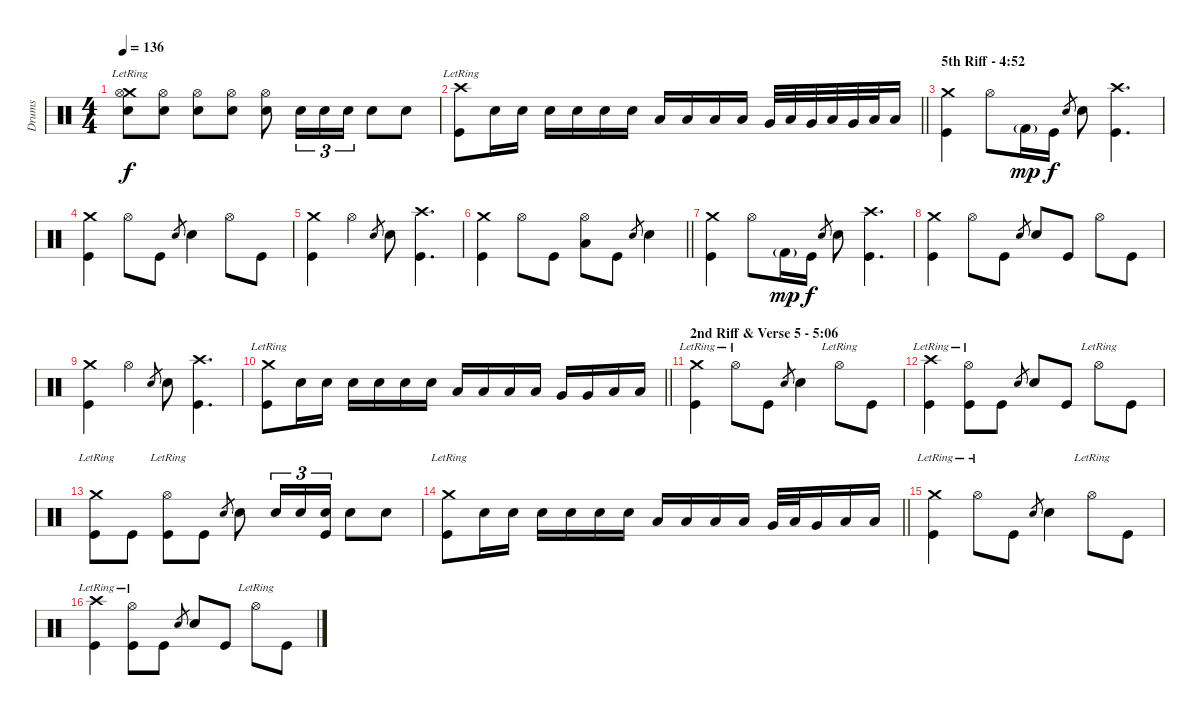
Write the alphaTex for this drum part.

\track ("Drums" "Drums") {instrument percussion}
\staff {score}
\articulation defaults
\ts (4 4)
\tempo 136
\clef neutral
\ks c
("Crash medium (hit)"{lr} "Hi-Hat (open)" "Snare (hit) 2").8{dy f} ("Hi-Hat (open)" "Snare (hit) 2").8 ("Hi-Hat (open)" "Snare (hit) 2").8 ("Hi-Hat (open)" "Snare (hit) 2").8 ("Hi-Hat (open)" "Snare (hit) 2").8 "Snare (hit) 2".16{tu (3 2)} "Snare (hit) 2".16{tu (3 2)} "Snare (hit) 2".16{tu (3 2)} "Snare (hit) 2".8 "Snare (hit) 2".8 |
\barLineRight lightlight
("Crash high (hit)"{lr} "Kick (hit)").8 "Snare (hit) 2".16 "Snare (hit) 2".16 "Snare (hit) 2".16 "Snare (hit) 2".16 "Snare (hit) 2".16 "Snare (hit) 2".16 "Low Tom (hit)".16 "Low Tom (hit)".16 "Low Tom (hit)".16 "Low Tom (hit)".16 "Very Low Tom (hit)".32 "Low Tom (hit)".32 "Very Low Tom (hit)".32 "Low Floor Tom (hit)".32 "Very Low Tom (hit)".32 "Low Floor Tom (hit)".32 "Low Floor Tom (hit)".16 |
\section ("" "5th Riff - 4:52")
("Crash medium (hit)" "Kick (hit)").4 "Hi-Hat (open)".8 "Kick (hit) 2"{g}.16{dy mp} "Kick (hit)".16{dy f} "Snare (hit) 2".8{gr} "Snare (hit) 2".8 ("Crash high (hit)" "Kick (hit)").4{d} |
("Crash medium (hit)" "Kick (hit)").4 "Hi-Hat (open)".8 "Kick (hit)".8 "Snare (hit) 2".8{gr} "Snare (hit) 2".4 "Hi-Hat (open)".8 "Kick (hit)".8 |
("Crash medium (hit)" "Kick (hit)").4 "Hi-Hat (open)".4 "Snare (hit) 2".8{gr} "Snare (hit) 2".8 ("Crash high (hit)" "Kick (hit)").4{d} |
\barLineRight lightlight
("Crash medium (hit)" "Kick (hit)").4 "Hi-Hat (open)".8 "Kick (hit)".8 ("Hi-Hat (open)" "Low Tom (hit)").8 "Kick (hit)".8 "Snare (hit) 2".8{gr} "Snare (hit) 2".4 |
("Crash medium (hit)" "Kick (hit)").4 "Hi-Hat (open)".8 "Kick (hit) 2"{g}.16{dy mp} "Kick (hit)".16{dy f} "Snare (hit) 2".8{gr} "Snare (hit) 2".8 ("Crash high (hit)" "Kick (hit)").4{d} |
("Crash medium (hit)" "Kick (hit)").4 "Hi-Hat (open)".8 "Kick (hit)".8 "Snare (hit) 2".8{gr} "Snare (hit) 2".8 "Kick (hit)".8 "Hi-Hat (open)".8 "Kick (hit)".8 |
("Crash medium (hit)" "Kick (hit)").4 "Hi-Hat (open)".4 "Snare (hit) 2".8{gr} "Snare (hit) 2".8 ("Crash high (hit)" "Kick (hit)").4{d} |
\barLineRight lightlight
("Crash medium (hit)"{lr} "Kick (hit)").8 "Snare (hit) 2".16 "Snare (hit) 2".16 "Snare (hit) 2".16 "Snare (hit) 2".16 "Snare (hit) 2".16 "Snare (hit) 2".16 "Low Tom (hit)".16 "Low Tom (hit)".16 "Low Tom (hit)".16 "Low Tom (hit)".16 "Very Low Tom (hit)".16 "Very Low Tom (hit)".16 "Low Floor Tom (hit)".16 "Low Floor Tom (hit)".16 |
\section ("" "2nd Riff & Verse 5 - 5:06")
("Crash medium (hit)"{lr} "Kick (hit)").4 "Hi-Hat (open)"{lr}.8 "Kick (hit)".8 "Snare (hit) 2".8{gr} "Snare (hit) 2".4 "Hi-Hat (open)"{lr}.8 "Kick (hit)".8 |
("Crash high (hit)"{lr} "Kick (hit)").4 ("Hi-Hat (open)"{lr} "Kick (hit)").8 "Kick (hit)".8 "Snare (hit) 2".8{gr} "Snare (hit) 2".8 "Kick (hit)".8 "Hi-Hat (open)"{lr}.8 "Kick (hit)".8 |
("Crash medium (hit)"{lr} "Kick (hit)").8 "Kick (hit)".8 ("Hi-Hat (open)"{lr} "Kick (hit)").8 "Kick (hit)".8 "Snare (hit) 2".8{gr} "Snare (hit) 2".8 "Snare (hit) 2".16{tu (3 2)} "Snare (hit) 2".16{tu (3 2)} ("Snare (hit) 2" "Kick (hit)").16{tu (3 2)} "Snare (hit) 2".8 "Snare (hit) 2".8 |
\barLineRight lightlight
("Crash medium (hit)"{lr} "Kick (hit)").8 "Snare (hit) 2".16 "Snare (hit) 2".16 "Snare (hit) 2".16 "Snare (hit) 2".16 "Snare (hit) 2".16 "Snare (hit) 2".16 "Low Tom (hit)".16 "Low Tom (hit)".16 "Low Tom (hit)".16 "Low Tom (hit)".16 "Very Low Tom (hit)".32 "Low Tom (hit)".32 "Very Low Tom (hit)".16 "Low Floor Tom (hit)".16 "Low Floor Tom (hit)".16 |
("Crash medium (hit)"{lr} "Kick (hit)").4 "Hi-Hat (open)"{lr}.8 "Kick (hit)".8 "Snare (hit) 2".8{gr} "Snare (hit) 2".4 "Hi-Hat (open)"{lr}.8 "Kick (hit)".8 |
("Crash high (hit)"{lr} "Kick (hit)").4 ("Hi-Hat (open)"{lr} "Kick (hit)").8 "Kick (hit)".8 "Snare (hit) 2".8{gr} "Snare (hit) 2".8 "Kick (hit)".8 "Hi-Hat (open)"{lr}.8 "Kick (hit)".8
